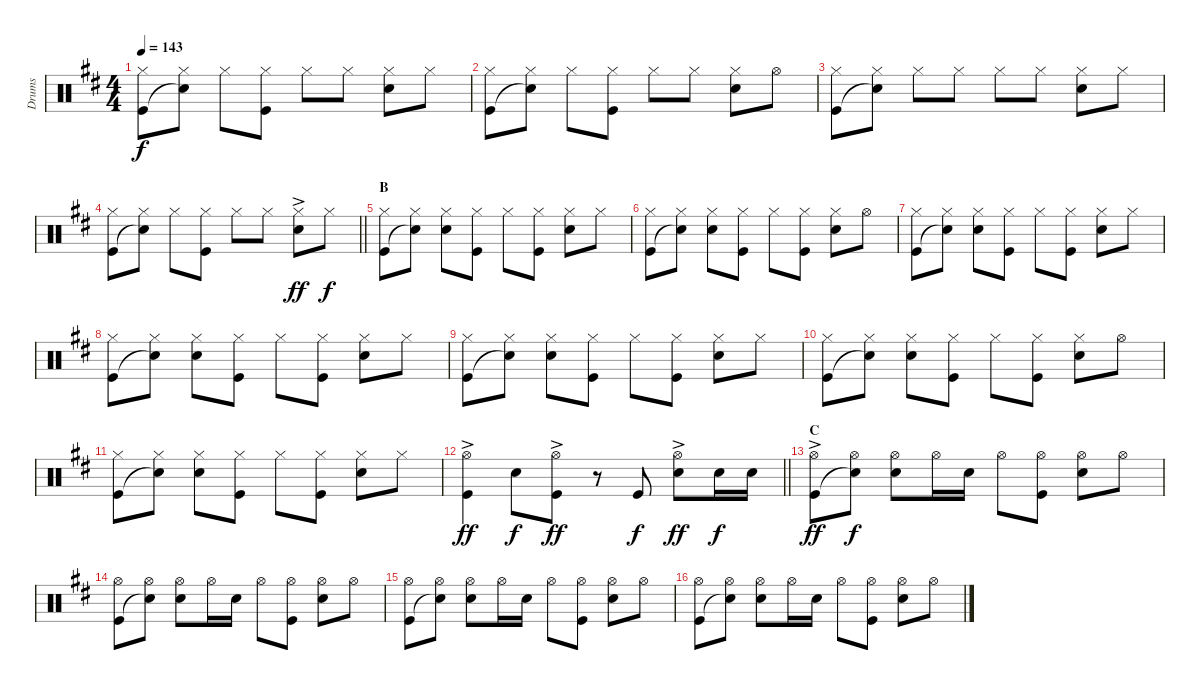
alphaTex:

\track ("Drums" "Drums") {instrument percussion}
\staff {score}
\articulation defaults
\ts (4 4)
\tempo 143
\clef neutral
\ks d
("Hi-Hat (closed)" "Kick (hit)").8{dy f} ("Hi-Hat (closed)" "Snare (hit)"{t}).8 "Hi-Hat (closed)".8 ("Hi-Hat (closed)" "Kick (hit)").8 "Hi-Hat (closed)".8 "Hi-Hat (closed)".8 ("Hi-Hat (closed)" "Snare (hit) 2").8 "Hi-Hat (closed)".8 |
("Hi-Hat (closed)" "Kick (hit)").8 ("Hi-Hat (closed)" "Snare (hit)"{t}).8 "Hi-Hat (closed)".8 ("Hi-Hat (closed)" "Kick (hit)").8 "Hi-Hat (closed)".8 "Hi-Hat (closed)".8 ("Hi-Hat (closed)" "Snare (hit) 2").8 "Hi-Hat (open)".8 |
("Hi-Hat (closed)" "Kick (hit)").8 ("Hi-Hat (closed)" "Snare (hit)"{t}).8 "Hi-Hat (closed)".8 "Hi-Hat (closed)".8 "Hi-Hat (closed)".8 "Hi-Hat (closed)".8 ("Hi-Hat (closed)" "Snare (hit) 2").8 "Hi-Hat (closed)".8 |
\barLineRight lightlight
("Hi-Hat (closed)" "Kick (hit)").8 ("Hi-Hat (closed)" "Snare (hit)"{t}).8 "Hi-Hat (closed)".8 ("Hi-Hat (closed)" "Kick (hit)").8 "Hi-Hat (closed)".8 "Hi-Hat (closed)".8 ("Hi-Hat (closed)"{ac} "Snare (hit) 2"{ac}).8{dy ff} "Hi-Hat (closed)".8{dy f} |
\section ("" "B")
("Hi-Hat (closed)" "Kick (hit)").8 ("Hi-Hat (closed)" "Snare (hit)"{t}).8 ("Hi-Hat (closed)" "Snare (hit) 2").8 ("Hi-Hat (closed)" "Kick (hit)").8 "Hi-Hat (closed)".8 ("Hi-Hat (closed)" "Kick (hit)").8 ("Hi-Hat (closed)" "Snare (hit) 2").8 "Hi-Hat (closed)".8 |
("Hi-Hat (closed)" "Kick (hit)").8 ("Hi-Hat (closed)" "Snare (hit)"{t}).8 ("Hi-Hat (closed)" "Snare (hit) 2").8 ("Hi-Hat (closed)" "Kick (hit)").8 "Hi-Hat (closed)".8 ("Hi-Hat (closed)" "Kick (hit)").8 ("Hi-Hat (closed)" "Snare (hit) 2").8 "Hi-Hat (open)".8 |
("Hi-Hat (closed)" "Kick (hit)").8 ("Hi-Hat (closed)" "Snare (hit)"{t}).8 ("Hi-Hat (closed)" "Snare (hit) 2").8 ("Hi-Hat (closed)" "Kick (hit)").8 "Hi-Hat (closed)".8 ("Hi-Hat (closed)" "Kick (hit)").8 ("Hi-Hat (closed)" "Snare (hit) 2").8 "Hi-Hat (closed)".8 |
("Hi-Hat (closed)" "Kick (hit)").8 ("Hi-Hat (closed)" "Snare (hit)"{t}).8 ("Hi-Hat (closed)" "Snare (hit) 2").8 ("Hi-Hat (closed)" "Kick (hit)").8 "Hi-Hat (closed)".8 ("Hi-Hat (closed)" "Kick (hit)").8 ("Hi-Hat (closed)" "Snare (hit) 2").8 "Hi-Hat (closed)".8 |
("Hi-Hat (closed)" "Kick (hit)").8 ("Hi-Hat (closed)" "Snare (hit)"{t}).8 ("Hi-Hat (closed)" "Snare (hit) 2").8 ("Hi-Hat (closed)" "Kick (hit)").8 "Hi-Hat (closed)".8 ("Hi-Hat (closed)" "Kick (hit)").8 ("Hi-Hat (closed)" "Snare (hit) 2").8 "Hi-Hat (closed)".8 |
("Hi-Hat (closed)" "Kick (hit)").8 ("Hi-Hat (closed)" "Snare (hit)"{t}).8 ("Hi-Hat (closed)" "Snare (hit) 2").8 ("Hi-Hat (closed)" "Kick (hit)").8 "Hi-Hat (closed)".8 ("Hi-Hat (closed)" "Kick (hit)").8 ("Hi-Hat (closed)" "Snare (hit) 2").8 "Hi-Hat (open)".8 |
("Hi-Hat (closed)" "Kick (hit)").8 ("Hi-Hat (closed)" "Snare (hit)"{t}).8 ("Hi-Hat (closed)" "Snare (hit) 2").8 ("Hi-Hat (closed)" "Kick (hit)").8 "Hi-Hat (closed)".8 ("Hi-Hat (closed)" "Kick (hit)").8 ("Hi-Hat (closed)" "Snare (hit) 2").8 "Hi-Hat (closed)".8 |
\barLineRight lightlight
("Hi-Hat (open)"{ac} "Kick (hit)"{ac}).4{dy ff} "Snare (hit) 2".8{dy f} ("Hi-Hat (open)"{ac} "Kick (hit)"{ac}).8{dy ff} r.8 "Kick (hit)".8{dy f} ("Hi-Hat (open)"{ac} "Snare (hit) 2"{ac}).8{dy ff} "Snare (hit) 2".16{dy f} "Snare (hit) 2".16 |
\section ("" "C")
("Hi-Hat (open)"{ac} "Kick (hit)"{ac}).8{dy ff} ("Hi-Hat (open)" "Snare (hit)"{t}).8{dy f} ("Hi-Hat (open)" "Snare (hit) 2").8 "Hi-Hat (open)".16 "Snare (hit) 2".16 "Hi-Hat (open)".8 ("Hi-Hat (open)" "Kick (hit)").8 ("Hi-Hat (open)" "Snare (hit) 2").8 "Hi-Hat (open)".8 |
("Hi-Hat (open)" "Kick (hit)").8 ("Hi-Hat (open)" "Snare (hit)"{t}).8 ("Hi-Hat (open)" "Snare (hit) 2").8 "Hi-Hat (open)".16 "Snare (hit) 2".16 "Hi-Hat (open)".8 ("Hi-Hat (open)" "Kick (hit)").8 ("Hi-Hat (open)" "Snare (hit) 2").8 "Hi-Hat (open)".8 |
("Hi-Hat (open)" "Kick (hit)").8 ("Hi-Hat (open)" "Snare (hit)"{t}).8 ("Hi-Hat (open)" "Snare (hit) 2").8 "Hi-Hat (open)".16 "Snare (hit) 2".16 "Hi-Hat (open)".8 ("Hi-Hat (open)" "Kick (hit)").8 ("Hi-Hat (open)" "Snare (hit) 2").8 "Hi-Hat (open)".8 |
("Hi-Hat (open)" "Kick (hit)").8 ("Hi-Hat (open)" "Snare (hit)"{t}).8 ("Hi-Hat (open)" "Snare (hit) 2").8 "Hi-Hat (open)".16 "Snare (hit) 2".16 "Hi-Hat (open)".8 ("Hi-Hat (open)" "Kick (hit)").8 ("Hi-Hat (open)" "Snare (hit) 2").8 "Hi-Hat (open)".8
